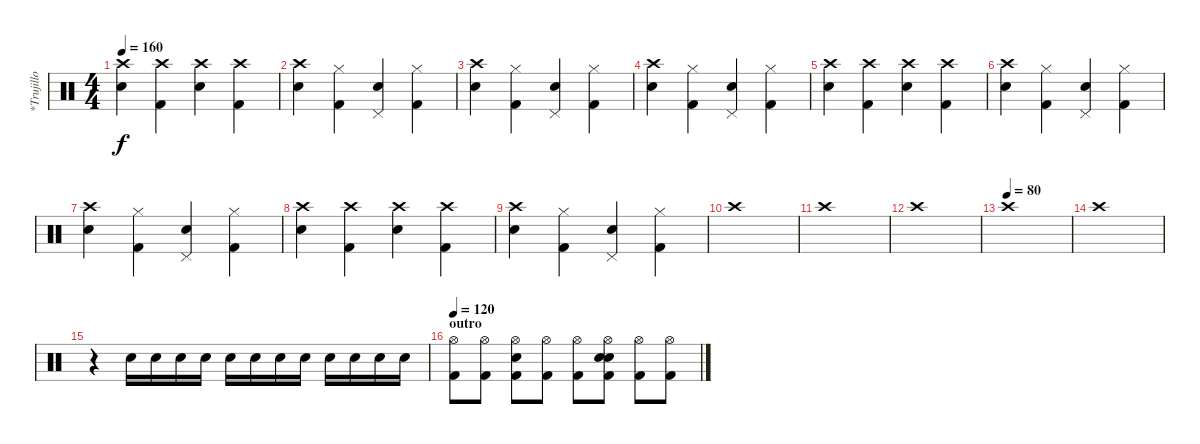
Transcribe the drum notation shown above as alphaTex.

\track ("*Trujillo" "*Trujillo") {instrument percussion}
\staff {score}
\articulation defaults
\ts (4 4)
\tempo 160
\clef neutral
\ks c
("Crash high (hit)" "Electric Snare (hit)").4{dy f} ("Crash high (hit)" "Kick (hit) 2").4 ("Crash high (hit)" "Electric Snare (hit)").4 ("Crash high (hit)" "Kick (hit) 2").4 |
("Crash high (hit)" "Electric Snare (hit)").4 ("Hi-Hat (closed)" "Kick (hit) 2").4 ("Pedal Hi-Hat (hit)" "Electric Snare (hit)").4 ("Hi-Hat (closed)" "Kick (hit) 2").4 |
("Crash high (hit)" "Electric Snare (hit)").4 ("Hi-Hat (closed)" "Kick (hit) 2").4 ("Pedal Hi-Hat (hit)" "Electric Snare (hit)").4 ("Hi-Hat (closed)" "Kick (hit) 2").4 |
("Crash high (hit)" "Electric Snare (hit)").4 ("Hi-Hat (closed)" "Kick (hit) 2").4 ("Pedal Hi-Hat (hit)" "Electric Snare (hit)").4 ("Hi-Hat (closed)" "Kick (hit) 2").4 |
("Crash high (hit)" "Electric Snare (hit)").4 ("Crash high (hit)" "Kick (hit) 2").4 ("Crash high (hit)" "Electric Snare (hit)").4 ("Crash high (hit)" "Kick (hit) 2").4 |
("Crash high (hit)" "Electric Snare (hit)").4 ("Hi-Hat (closed)" "Kick (hit) 2").4 ("Pedal Hi-Hat (hit)" "Electric Snare (hit)").4 ("Hi-Hat (closed)" "Kick (hit) 2").4 |
("Crash high (hit)" "Electric Snare (hit)").4 ("Hi-Hat (closed)" "Kick (hit) 2").4 ("Pedal Hi-Hat (hit)" "Electric Snare (hit)").4 ("Hi-Hat (closed)" "Kick (hit) 2").4 |
("Crash high (hit)" "Electric Snare (hit)").4 ("Crash high (hit)" "Kick (hit) 2").4 ("Crash high (hit)" "Electric Snare (hit)").4 ("Crash high (hit)" "Kick (hit) 2").4 |
("Crash high (hit)" "Electric Snare (hit)").4 ("Hi-Hat (closed)" "Kick (hit) 2").4 ("Pedal Hi-Hat (hit)" "Electric Snare (hit)").4 ("Hi-Hat (closed)" "Kick (hit) 2").4 |
"Crash high (hit)".1 |
"Crash high (hit)".1 |
"Crash high (hit)".1 |
\tempo (80)
"Crash high (hit)".1 |
"Crash high (hit)".1 |
r.4 "Electric Snare (hit)".16 "Electric Snare (hit)".16 "Electric Snare (hit)".16 "Electric Snare (hit)".16 "Electric Snare (hit)".16 "Electric Snare (hit)".16 "Electric Snare (hit)".16 "Electric Snare (hit)".16 "Electric Snare (hit)".16 "Electric Snare (hit)".16 "Electric Snare (hit)".16 "Electric Snare (hit)".16 |
\section ("" "outro")
\tempo 120
("Hi-Hat (open)" "Kick (hit) 2").8 ("Hi-Hat (open)" "Kick (hit) 2").8 ("Hi-Hat (open)" "Electric Snare (hit)" "Kick (hit) 2").8 ("Hi-Hat (open)" "Kick (hit) 2").8 ("Hi-Hat (open)" "Kick (hit) 2").8 ("Hi-Hat (open)" "Electric Snare (hit)" "Snare (hit)" "Kick (hit) 2").8 ("Hi-Hat (open)" "Kick (hit) 2").8 ("Hi-Hat (open)" "Kick (hit) 2").8
